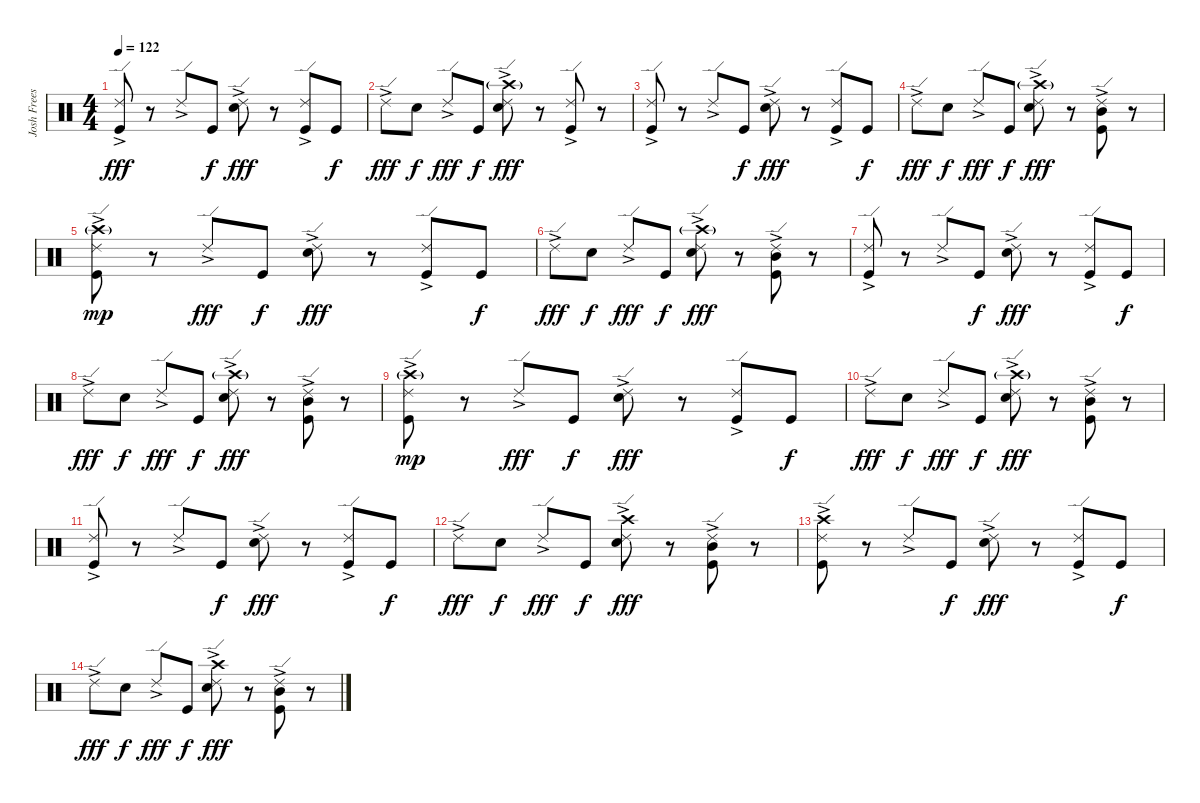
\track ("Josh Freese" "Josh Frees") {instrument percussion}
\staff {score}
\articulation defaults
\ts (4 4)
\tempo 122
\clef neutral
\ks c
("Ride (edge) 2"{ac} "Kick (hit)").8{dy fff} r.8 "Ride (edge) 2"{ac}.8 "Kick (hit)".8{dy f} ("Ride (edge) 2"{ac} "Electric Snare (hit)"{ac}).8{dy fff} r.8 ("Ride (edge) 2"{ac} "Kick (hit)").8 "Kick (hit)".8{dy f} |
"Ride (edge) 2"{ac}.8{dy fff} "Electric Snare (hit)".8{dy f} "Ride (edge) 2"{ac}.8{dy fff} "Kick (hit)".8{dy f} ("Ride (edge) 2"{ac} "Crash high (hit)"{g} "Electric Snare (hit)"{ac}).8{dy fff} r.8 ("Ride (edge) 2"{ac} "Kick (hit)").8 r.8 |
("Ride (edge) 2"{ac} "Kick (hit)").8 r.8 "Ride (edge) 2"{ac}.8 "Kick (hit)".8{dy f} ("Ride (edge) 2"{ac} "Electric Snare (hit)"{ac}).8{dy fff} r.8 ("Ride (edge) 2"{ac} "Kick (hit)").8 "Kick (hit)".8{dy f} |
"Ride (edge) 2"{ac}.8{dy fff} "Electric Snare (hit)".8{dy f} "Ride (edge) 2"{ac}.8{dy fff} "Kick (hit)".8{dy f} ("Ride (edge) 2"{ac} "Crash high (hit)"{g} "Electric Snare (hit)"{ac}).8{dy fff} r.8 ("Ride (edge) 2"{ac} "Mid Tom (hit)"{ac} "Kick (hit)").8 r.8 |
("Ride (edge) 2"{ac} "Crash high (hit)"{g} "Kick (hit)").8{dy mp} r.8 "Ride (edge) 2"{ac}.8{dy fff} "Kick (hit)".8{dy f} ("Ride (edge) 2"{ac} "Electric Snare (hit)"{ac}).8{dy fff} r.8 ("Ride (edge) 2"{ac} "Kick (hit)").8 "Kick (hit)".8{dy f} |
"Ride (edge) 2"{ac}.8{dy fff} "Electric Snare (hit)".8{dy f} "Ride (edge) 2"{ac}.8{dy fff} "Kick (hit)".8{dy f} ("Ride (edge) 2"{ac} "Crash high (hit)"{g} "Electric Snare (hit)"{ac}).8{dy fff} r.8 ("Ride (edge) 2"{ac} "Mid Tom (hit)"{ac} "Kick (hit)").8 r.8 |
("Ride (edge) 2"{ac} "Kick (hit)").8{volume 6} r.8 "Ride (edge) 2"{ac}.8 "Kick (hit)".8{dy f} ("Ride (edge) 2"{ac} "Electric Snare (hit)"{ac}).8{dy fff} r.8 ("Ride (edge) 2"{ac} "Kick (hit)").8 "Kick (hit)".8{dy f} |
"Ride (edge) 2"{ac}.8{dy fff} "Electric Snare (hit)".8{dy f} "Ride (edge) 2"{ac}.8{dy fff} "Kick (hit)".8{dy f} ("Ride (edge) 2"{ac} "Crash high (hit)"{g} "Electric Snare (hit)"{ac}).8{dy fff} r.8 ("Ride (edge) 2"{ac} "Mid Tom (hit)"{ac} "Kick (hit)").8 r.8 |
("Ride (edge) 2"{ac} "Crash high (hit)"{g} "Kick (hit)").8{dy mp} r.8 "Ride (edge) 2"{ac}.8{dy fff} "Kick (hit)".8{dy f} ("Ride (edge) 2"{ac} "Electric Snare (hit)"{ac}).8{dy fff} r.8 ("Ride (edge) 2"{ac} "Kick (hit)").8 "Kick (hit)".8{dy f} |
"Ride (edge) 2"{ac}.8{dy fff} "Electric Snare (hit)".8{dy f} "Ride (edge) 2"{ac}.8{dy fff} "Kick (hit)".8{dy f} ("Ride (edge) 2"{ac} "Crash high (hit)"{g} "Electric Snare (hit)"{ac}).8{dy fff} r.8 ("Ride (edge) 2"{ac} "Mid Tom (hit)"{ac} "Kick (hit)").8 r.8 |
("Ride (edge) 2"{ac} "Kick (hit)").8{volume 0} r.8 "Ride (edge) 2"{ac}.8 "Kick (hit)".8{dy f} ("Ride (edge) 2"{ac} "Electric Snare (hit)"{ac}).8{dy fff} r.8 ("Ride (edge) 2"{ac} "Kick (hit)").8 "Kick (hit)".8{dy f} |
"Ride (edge) 2"{ac}.8{dy fff} "Electric Snare (hit)".8{dy f} "Ride (edge) 2"{ac}.8{dy fff} "Kick (hit)".8{dy f} ("Ride (edge) 2"{ac} "Crash high (hit)"{ac} "Electric Snare (hit)"{ac}).8{dy fff} r.8 ("Ride (edge) 2"{ac} "Mid Tom (hit)"{ac} "Kick (hit)").8 r.8 |
("Ride (edge) 2"{ac} "Crash high (hit)"{ac} "Kick (hit)").8 r.8 "Ride (edge) 2"{ac}.8 "Kick (hit)".8{dy f} ("Ride (edge) 2"{ac} "Electric Snare (hit)"{ac}).8{dy fff} r.8 ("Ride (edge) 2"{ac} "Kick (hit)").8 "Kick (hit)".8{dy f} |
"Ride (edge) 2"{ac}.8{dy fff} "Electric Snare (hit)".8{dy f} "Ride (edge) 2"{ac}.8{dy fff} "Kick (hit)".8{dy f} ("Ride (edge) 2"{ac} "Crash high (hit)"{ac} "Electric Snare (hit)"{ac}).8{dy fff} r.8 ("Ride (edge) 2"{ac} "Mid Tom (hit)"{ac} "Kick (hit)").8 r.8
